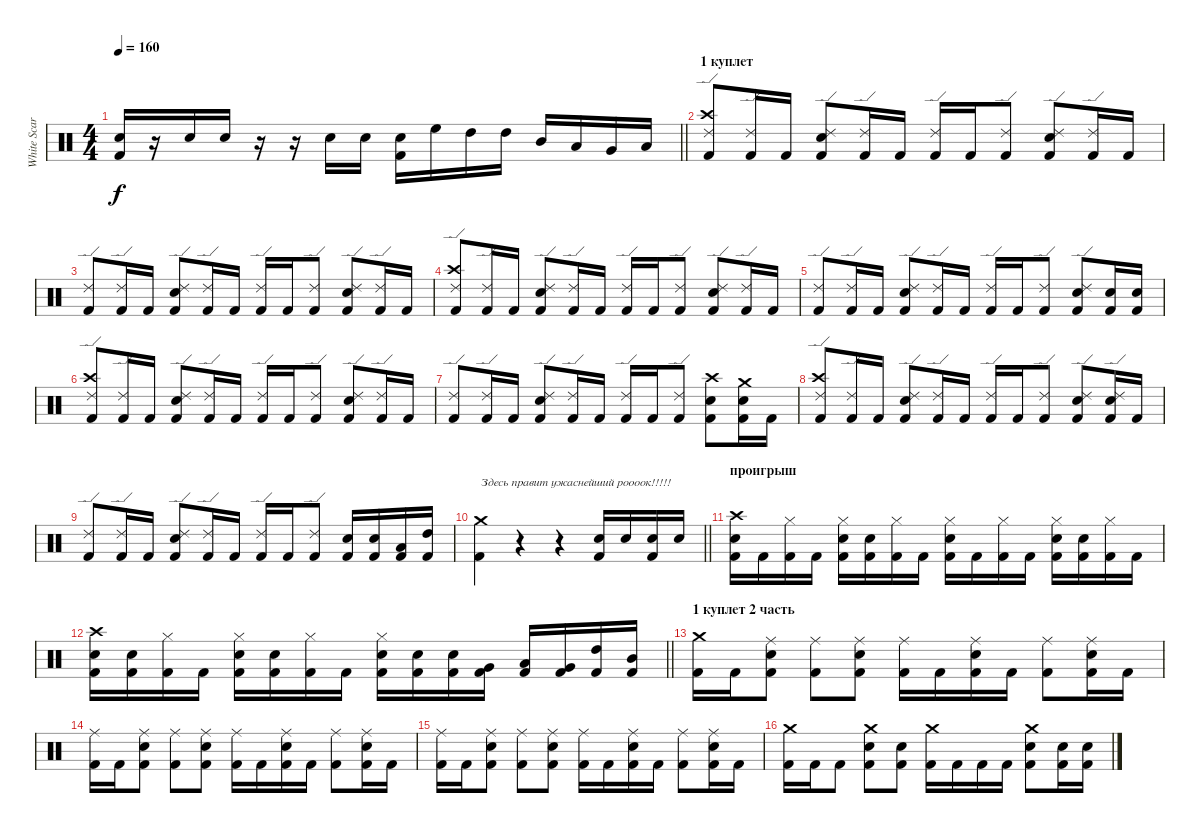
\track ("White Scar" "White Scar") {instrument percussion}
\staff {score}
\articulation defaults
\ts (4 4)
\tempo 160
\clef neutral
\barLineRight lightlight
\ks c
("Snare (hit) 2" "Kick (hit) 2").16{dy f} r.16 "Snare (hit) 2".16 "Snare (hit) 2".16 r.16 r.16 "Snare (hit) 2".16 "Snare (hit) 2".16 ("Snare (hit) 2" "Kick (hit) 2").16 "High Floor Tom (hit)".16 "High Tom (hit)".16 "High Tom (hit)".16 "Mid Tom (hit)".16 "Low Tom (hit)".16 "Very Low Tom (hit)".16 "Low Floor Tom (hit)".16 |
\section ("" "1 куплет")
("Crash high (hit)" "Ride (edge) 2" "Kick (hit) 2").8 ("Ride (edge) 2" "Kick (hit) 2").16 "Kick (hit) 2".16 ("Snare (hit) 2" "Ride (edge) 2" "Kick (hit) 2").8 ("Ride (edge) 2" "Kick (hit) 2").16 "Kick (hit) 2".16 ("Ride (edge) 2" "Kick (hit) 2").16 "Kick (hit) 2".16 ("Ride (edge) 2" "Kick (hit) 2").8 ("Snare (hit) 2" "Ride (edge) 2" "Kick (hit) 2").8 ("Ride (edge) 2" "Kick (hit) 2").16 "Kick (hit) 2".16 |
("Ride (edge) 2" "Kick (hit) 2").8 ("Ride (edge) 2" "Kick (hit) 2").16 "Kick (hit) 2".16 ("Snare (hit) 2" "Ride (edge) 2" "Kick (hit) 2").8 ("Ride (edge) 2" "Kick (hit) 2").16 "Kick (hit) 2".16 ("Ride (edge) 2" "Kick (hit) 2").16 "Kick (hit) 2".16 ("Ride (edge) 2" "Kick (hit) 2").8 ("Snare (hit) 2" "Ride (edge) 2" "Kick (hit) 2").8 ("Ride (edge) 2" "Kick (hit) 2").16 "Kick (hit) 2".16 |
("Crash high (hit)" "Ride (edge) 2" "Kick (hit) 2").8 ("Ride (edge) 2" "Kick (hit) 2").16 "Kick (hit) 2".16 ("Snare (hit) 2" "Ride (edge) 2" "Kick (hit) 2").8 ("Ride (edge) 2" "Kick (hit) 2").16 "Kick (hit) 2".16 ("Ride (edge) 2" "Kick (hit) 2").16 "Kick (hit) 2".16 ("Ride (edge) 2" "Kick (hit) 2").8 ("Snare (hit) 2" "Ride (edge) 2" "Kick (hit) 2").8 ("Ride (edge) 2" "Kick (hit) 2").16 "Kick (hit) 2".16 |
("Ride (edge) 2" "Kick (hit) 2").8 ("Ride (edge) 2" "Kick (hit) 2").16 "Kick (hit) 2".16 ("Snare (hit) 2" "Ride (edge) 2" "Kick (hit) 2").8 ("Ride (edge) 2" "Kick (hit) 2").16 "Kick (hit) 2".16 ("Ride (edge) 2" "Kick (hit) 2").16 "Kick (hit) 2".16 ("Ride (edge) 2" "Kick (hit) 2").8 ("Snare (hit) 2" "Ride (edge) 2" "Kick (hit) 2").8 ("Snare (hit) 2" "Kick (hit) 2").16 ("Snare (hit) 2" "Kick (hit) 2").16 |
("Crash high (hit)" "Ride (edge) 2" "Kick (hit) 2").8 ("Ride (edge) 2" "Kick (hit) 2").16 "Kick (hit) 2".16 ("Snare (hit) 2" "Ride (edge) 2" "Kick (hit) 2").8 ("Ride (edge) 2" "Kick (hit) 2").16 "Kick (hit) 2".16 ("Ride (edge) 2" "Kick (hit) 2").16 "Kick (hit) 2".16 ("Ride (edge) 2" "Kick (hit) 2").8 ("Snare (hit) 2" "Ride (edge) 2" "Kick (hit) 2").8 ("Ride (edge) 2" "Kick (hit) 2").16 "Kick (hit) 2".16 |
("Ride (edge) 2" "Kick (hit) 2").8 ("Ride (edge) 2" "Kick (hit) 2").16 "Kick (hit) 2".16 ("Snare (hit) 2" "Ride (edge) 2" "Kick (hit) 2").8 ("Ride (edge) 2" "Kick (hit) 2").16 "Kick (hit) 2".16 ("Ride (edge) 2" "Kick (hit) 2").16 "Kick (hit) 2".16 ("Ride (edge) 2" "Kick (hit) 2").8 ("Snare (hit) 2" "Crash high (hit)" "Kick (hit) 2").8 ("Snare (hit) 2" "Crash medium (hit)" "Kick (hit) 2").16 "Kick (hit) 2".16 |
("Crash high (hit)" "Ride (edge) 2" "Kick (hit) 2").8 ("Ride (edge) 2" "Kick (hit) 2").16 "Kick (hit) 2".16 ("Snare (hit) 2" "Ride (edge) 2" "Kick (hit) 2").8 ("Ride (edge) 2" "Kick (hit) 2").16 "Kick (hit) 2".16 ("Ride (edge) 2" "Kick (hit) 2").16 "Kick (hit) 2".16 ("Ride (edge) 2" "Kick (hit) 2").8 ("Snare (hit) 2" "Ride (edge) 2" "Kick (hit) 2").8 ("Snare (hit) 2" "Ride (edge) 2" "Kick (hit) 2").16 "Kick (hit) 2".16 |
("Ride (edge) 2" "Kick (hit) 2").8 ("Ride (edge) 2" "Kick (hit) 2").16 "Kick (hit) 2".16 ("Snare (hit) 2" "Ride (edge) 2" "Kick (hit) 2").8 ("Ride (edge) 2" "Kick (hit) 2").16 "Kick (hit) 2".16 ("Ride (edge) 2" "Kick (hit) 2").16 "Kick (hit) 2".16 ("Ride (edge) 2" "Kick (hit) 2").8 ("Snare (hit) 2" "Kick (hit) 2").16 ("Snare (hit) 2" "Kick (hit) 2").16 ("Low Tom (hit)" "Kick (hit) 2").16 ("High Tom (hit)" "Kick (hit) 2").16 |
\barLineRight lightlight
("Crash medium (hit)" "Kick (hit) 2").4{txt "Здесь правит ужаснейший роооок!!!!!"} r.4 r.4 ("Snare (hit) 2" "Kick (hit) 2").16 "Snare (hit) 2".16 ("Snare (hit) 2" "Kick (hit) 2").16 "Snare (hit) 2".16 |
\section ("" "проигрыш")
("Snare (hit) 2" "Crash high (hit)" "Kick (hit) 2").16 "Kick (hit) 2".16 ("Hi-Hat (closed)" "Kick (hit) 2").16 "Kick (hit) 2".16 ("Snare (hit) 2" "Hi-Hat (closed)" "Kick (hit) 2").16 ("Snare (hit) 2" "Kick (hit) 2").16 ("Hi-Hat (closed)" "Kick (hit) 2").16 "Kick (hit) 2".16 ("Snare (hit) 2" "Hi-Hat (closed)" "Kick (hit) 2").16 "Kick (hit) 2".16 ("Hi-Hat (closed)" "Kick (hit) 2").16 "Kick (hit) 2".16 ("Snare (hit) 2" "Hi-Hat (closed)" "Kick (hit) 2").16 ("Snare (hit) 2" "Kick (hit) 2").16 ("Hi-Hat (closed)" "Kick (hit) 2").16 "Kick (hit) 2".16 |
\barLineRight lightlight
("Snare (hit) 2" "Crash high (hit)" "Kick (hit) 2").16 ("Snare (hit) 2" "Kick (hit) 2").16 ("Hi-Hat (closed)" "Kick (hit) 2").16 "Kick (hit) 2".16 ("Snare (hit) 2" "Hi-Hat (closed)" "Kick (hit) 2").16 ("Snare (hit) 2" "Kick (hit) 2").16 ("Hi-Hat (closed)" "Kick (hit) 2").16 "Kick (hit) 2".16 ("Snare (hit) 2" "Hi-Hat (closed)" "Kick (hit) 2").16 ("Snare (hit) 2" "Kick (hit) 2").16 ("Snare (hit) 2" "Kick (hit) 2").16 ("Very Low Tom (hit)" "Kick (hit) 2").16 ("Low Tom (hit)" "Kick (hit) 2").16 ("Very Low Tom (hit)" "Kick (hit) 2").16 ("High Tom (hit)" "Kick (hit) 2").16 ("Mid Tom (hit)" "Kick (hit) 2").16 |
\section ("" "1 куплет 2 часть")
("Crash medium (hit)" "Kick (hit) 2").16 "Kick (hit) 2".16 ("Ride (middle)" "Snare (hit) 2" "Kick (hit) 2").8 ("Ride (middle)" "Kick (hit) 2").8 ("Ride (middle)" "Snare (hit) 2" "Kick (hit) 2").8 ("Ride (middle)" "Kick (hit) 2").16 "Kick (hit) 2".16 ("Ride (middle)" "Snare (hit) 2" "Kick (hit) 2").16 "Kick (hit) 2".16 ("Ride (middle)" "Kick (hit) 2").8 ("Ride (middle)" "Snare (hit) 2" "Kick (hit) 2").16 "Kick (hit) 2".16 |
("Ride (middle)" "Kick (hit) 2").16 "Kick (hit) 2".16 ("Ride (middle)" "Snare (hit) 2" "Kick (hit) 2").8 ("Ride (middle)" "Kick (hit) 2").8 ("Ride (middle)" "Snare (hit) 2" "Kick (hit) 2").8 ("Ride (middle)" "Kick (hit) 2").16 "Kick (hit) 2".16 ("Ride (middle)" "Snare (hit) 2" "Kick (hit) 2").16 "Kick (hit) 2".16 ("Ride (middle)" "Kick (hit) 2").8 ("Ride (middle)" "Snare (hit) 2" "Kick (hit) 2").16 "Kick (hit) 2".16 |
("Ride (middle)" "Kick (hit) 2").16 "Kick (hit) 2".16 ("Ride (middle)" "Snare (hit) 2" "Kick (hit) 2").8 ("Ride (middle)" "Kick (hit) 2").8 ("Ride (middle)" "Snare (hit) 2" "Kick (hit) 2").8 ("Ride (middle)" "Kick (hit) 2").16 "Kick (hit) 2".16 ("Ride (middle)" "Snare (hit) 2" "Kick (hit) 2").16 "Kick (hit) 2".16 ("Ride (middle)" "Kick (hit) 2").8 ("Ride (middle)" "Snare (hit) 2" "Kick (hit) 2").16 "Kick (hit) 2".16 |
("Crash medium (hit)" "Kick (hit) 2").16 "Kick (hit) 2".16 "Kick (hit) 2".8 ("Crash medium (hit)" "Snare (hit) 2" "Kick (hit) 2").8 ("Snare (hit) 2" "Kick (hit) 2").8 ("Crash medium (hit)" "Kick (hit) 2").16 "Kick (hit) 2".16 "Kick (hit) 2".16 "Kick (hit) 2".16 ("Crash medium (hit)" "Snare (hit) 2" "Kick (hit) 2").8 ("Snare (hit) 2" "Kick (hit) 2").16 ("Snare (hit) 2" "Kick (hit) 2").16
